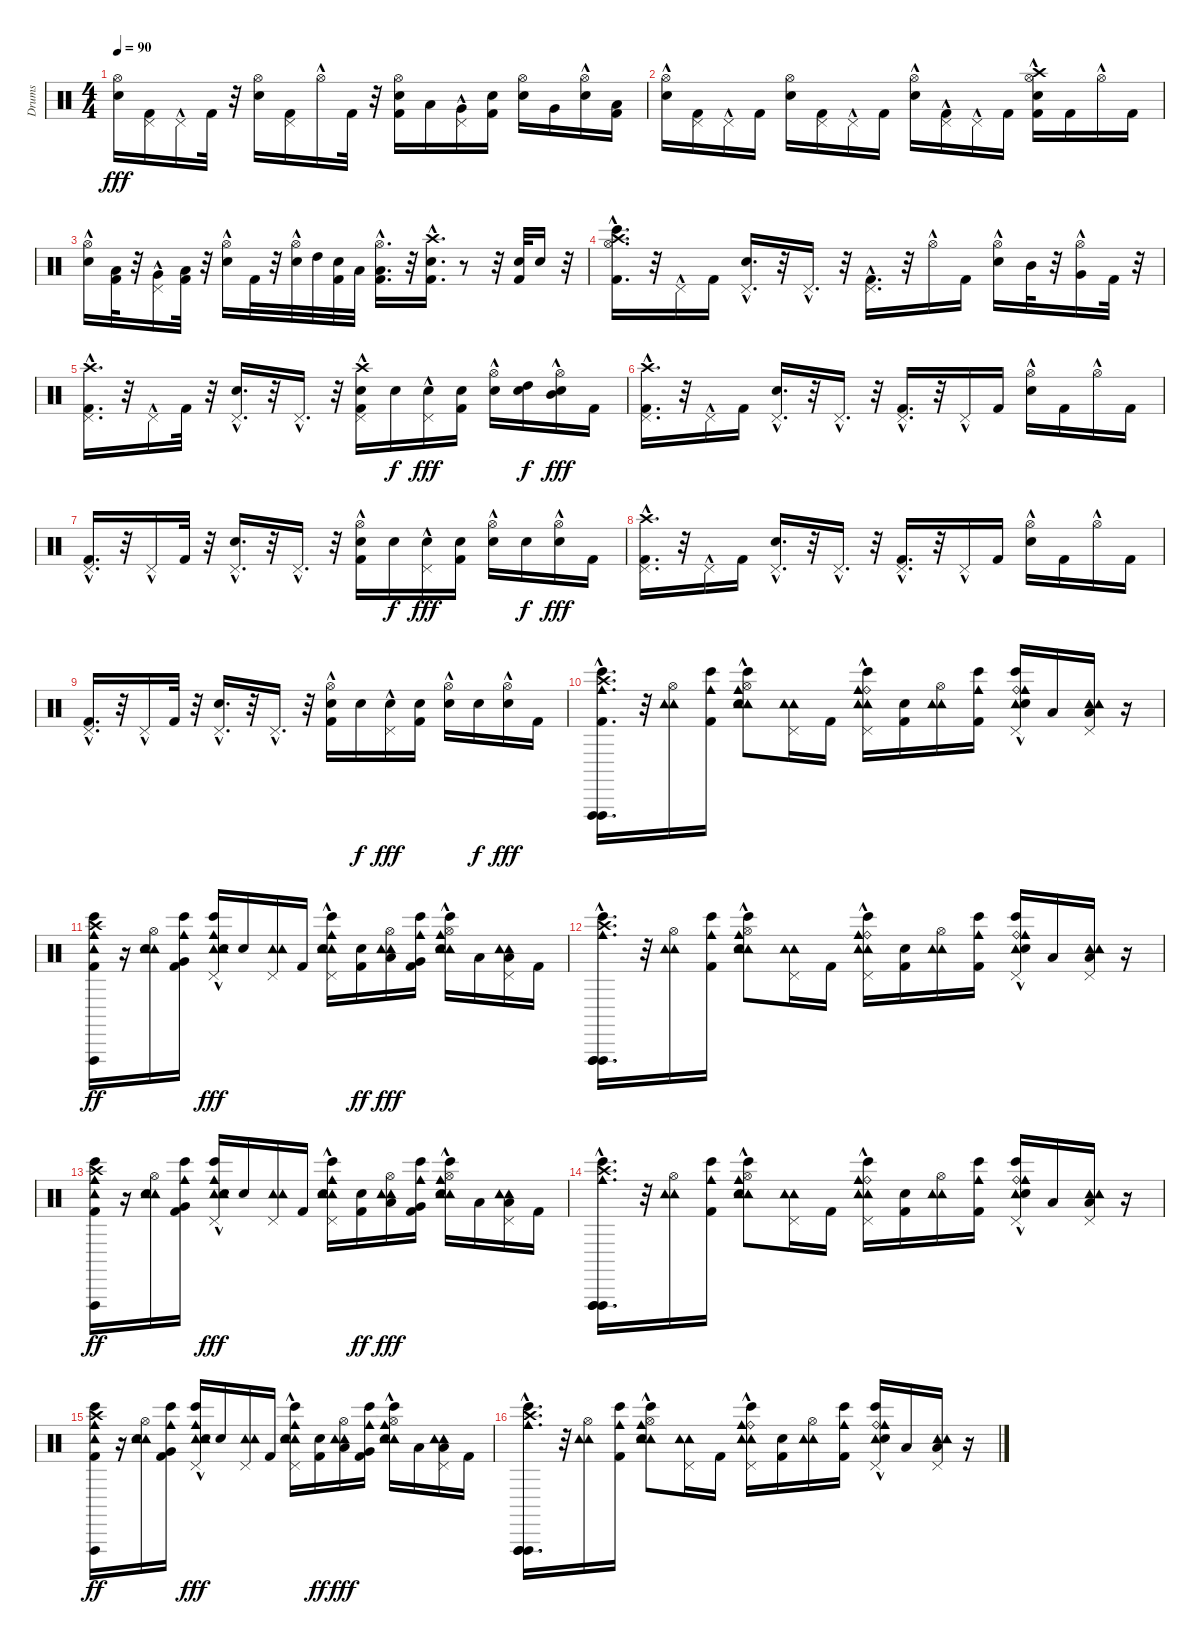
\track ("Drums" "Drums") {instrument percussion}
\staff {score}
\articulation defaults
\ts (4 4)
\tempo 90
\clef neutral
\ks c
("Hi-Hat (open)" "Electric Snare (hit)").16{dy fff} ("Pedal Hi-Hat (hit)" "Kick (hit) 2").16 "Pedal Hi-Hat (hit)"{hac}.16 "Kick (hit) 2".32 r.32 ("Hi-Hat (open)" "Electric Snare (hit)").16 ("Pedal Hi-Hat (hit)" "Kick (hit) 2").16 "Hi-Hat (open)"{hac}.16 "Kick (hit) 2".32 r.32 ("Hi-Hat (open)" "Kick (hit) 2" "Electric Snare (hit)").16 "Low Tom (hit)".16 ("Pedal Hi-Hat (hit)"{hac} "Very Low Tom (hit)").16 ("Electric Snare (hit)" "Kick (hit) 2").16 ("Hi-Hat (open)" "Electric Snare (hit)").16 "Very Low Tom (hit)".16 ("Hi-Hat (open)"{hac} "Electric Snare (hit)").16 ("Low Floor Tom (hit)" "Kick (hit) 2").16 |
("Hi-Hat (open)" "Electric Snare (hit)"{hac}).16 ("Pedal Hi-Hat (hit)" "Kick (hit) 2").16 "Pedal Hi-Hat (hit)"{hac}.16 "Kick (hit) 2".16 ("Electric Snare (hit)" "Hi-Hat (open)").16 ("Pedal Hi-Hat (hit)" "Kick (hit) 2").16 "Pedal Hi-Hat (hit)"{hac}.16 "Kick (hit) 2".16 ("Electric Snare (hit)"{hac} "Hi-Hat (open)").16 ("Pedal Hi-Hat (hit)" "Kick (hit) 2"{hac}).16 "Pedal Hi-Hat (hit)"{hac}.16 "Kick (hit) 2".16 ("Kick (hit) 2" "Crash high (hit)" "Hi-Hat (open)"{hac} "Electric Snare (hit)").16 "Kick (hit) 2".16 "Hi-Hat (open)"{hac}.16 "Kick (hit) 2".16 |
("Hi-Hat (open)"{hac} "Electric Snare (hit)").16 ("Kick (hit) 2" "Low Tom (hit)").32 r.32 ("Very Low Tom (hit)" "Pedal Hi-Hat (hit)"{hac}).16 ("Kick (hit) 2" "Low Floor Tom (hit)").32 r.32 ("Hi-Hat (open)"{hac} "Electric Snare (hit)").16 "Kick (hit) 2".32 r.32 ("Electric Snare (hit)" "Hi-Hat (open)"{hac}).32 "High Tom (hit)".32 ("Electric Snare (hit)" "Kick (hit) 2").32 "Low Tom (hit)".32 ("Hi-Hat (open)"{hac} "Low Floor Tom (hit)" "Kick (hit) 2").16{d} r.32 ("Crash high (hit)"{hac} "Kick (hit) 2"{hac} "Electric Snare (hit)"{hac}).16{d} r.8 r.32 ("Kick (hit) 2" "Electric Snare (hit)").32 "Electric Snare (hit)".16 r.32 |
("Bongo High (hit)" "Crash high (hit)" "Kick (hit) 2"{hac} "Hi-Hat (open)"{hac}).16{d} r.32 "Pedal Hi-Hat (hit)"{hac}.16 "Kick (hit) 2".16 ("Electric Snare (hit)"{hac} "Pedal Hi-Hat (hit)"{hac}).16{d} r.32 "Pedal Hi-Hat (hit)"{hac}.16{d} r.32 ("Kick (hit) 2"{hac} "Pedal Hi-Hat (hit)"{hac}).16{d} r.32 "Hi-Hat (open)"{hac}.16 "Kick (hit) 2".16 ("Electric Snare (hit)" "Hi-Hat (open)"{hac}).16 "Mid Tom (hit)".32 r.32 ("Hi-Hat (open)"{hac} "Very Low Tom (hit)").16 "Kick (hit) 2".32 r.32 |
("Crash high (hit)" "Kick (hit) 2" "Pedal Hi-Hat (hit)"{hac}).16{d} r.32 "Pedal Hi-Hat (hit)"{hac}.16 "Kick (hit) 2".32 r.32 ("Electric Snare (hit)" "Pedal Hi-Hat (hit)"{hac}).16{d} r.32 "Pedal Hi-Hat (hit)"{hac}.16{d} r.32 ("Electric Snare (hit)" "Crash high (hit)" "Kick (hit) 2" "Pedal Hi-Hat (hit)"{hac}).16 "Electric Snare (hit)".16{dy f} ("Electric Snare (hit)" "Pedal Hi-Hat (hit)"{hac}).16{dy fff} ("Electric Snare (hit)" "Kick (hit) 2").16 ("Electric Snare (hit)" "Hi-Hat (open)"{hac}).16 ("High Tom (hit)" "Electric Snare (hit)").16{dy f} ("Mid Tom (hit)" "Electric Snare (hit)" "Hi-Hat (open)"{hac}).16{dy fff} "Kick (hit) 2".16 |
("Crash high (hit)" "Kick (hit) 2" "Pedal Hi-Hat (hit)"{hac}).16{d} r.32 "Pedal Hi-Hat (hit)"{hac}.16 "Kick (hit) 2".16 ("Electric Snare (hit)" "Pedal Hi-Hat (hit)"{hac}).16{d} r.32 "Pedal Hi-Hat (hit)"{hac}.16{d} r.32 ("Pedal Hi-Hat (hit)"{hac} "Kick (hit) 2"{hac}).16{d} r.32 "Pedal Hi-Hat (hit)"{hac}.16 "Kick (hit) 2".16 ("Hi-Hat (open)"{hac} "Electric Snare (hit)").16 "Kick (hit) 2".16 "Hi-Hat (open)"{hac}.16 "Kick (hit) 2".16 |
("Pedal Hi-Hat (hit)"{hac} "Kick (hit) 2").16{d} r.32 "Pedal Hi-Hat (hit)"{hac}.16 "Kick (hit) 2".32 r.32 ("Pedal Hi-Hat (hit)"{hac} "Electric Snare (hit)").16{d} r.32 "Pedal Hi-Hat (hit)"{hac}.16{d} r.32 ("Hi-Hat (open)"{hac} "Electric Snare (hit)" "Kick (hit) 2").16 "Electric Snare (hit)".16{dy f} ("Pedal Hi-Hat (hit)"{hac} "Electric Snare (hit)").16{dy fff} ("Electric Snare (hit)" "Kick (hit) 2").16 ("Hi-Hat (open)"{hac} "Electric Snare (hit)").16 "Electric Snare (hit)".16{dy f} ("Hi-Hat (open)"{hac} "Electric Snare (hit)").16{dy fff} "Kick (hit) 2".16 |
("Crash high (hit)" "Kick (hit) 2" "Pedal Hi-Hat (hit)"{hac}).16{d} r.32 "Pedal Hi-Hat (hit)"{hac}.16 "Kick (hit) 2".16 ("Electric Snare (hit)" "Pedal Hi-Hat (hit)"{hac}).16{d} r.32 "Pedal Hi-Hat (hit)"{hac}.16{d} r.32 ("Pedal Hi-Hat (hit)"{hac} "Kick (hit) 2"{hac}).16{d} r.32 "Pedal Hi-Hat (hit)"{hac}.16 "Kick (hit) 2".16 ("Hi-Hat (open)"{hac} "Electric Snare (hit)").16 "Kick (hit) 2".16 "Hi-Hat (open)"{hac}.16 "Kick (hit) 2".16 |
("Pedal Hi-Hat (hit)"{hac} "Kick (hit) 2").16{d} r.32 "Pedal Hi-Hat (hit)"{hac}.16 "Kick (hit) 2".32 r.32 ("Pedal Hi-Hat (hit)"{hac} "Electric Snare (hit)").16{d} r.32 "Pedal Hi-Hat (hit)"{hac}.16{d} r.32 ("Hi-Hat (open)"{hac} "Electric Snare (hit)" "Kick (hit) 2").16 "Electric Snare (hit)".16{dy f} ("Pedal Hi-Hat (hit)"{hac} "Electric Snare (hit)").16{dy fff} ("Electric Snare (hit)" "Kick (hit) 2").16 ("Hi-Hat (open)"{hac} "Electric Snare (hit)").16 "Electric Snare (hit)".16{dy f} ("Hi-Hat (open)"{hac} "Electric Snare (hit)").16{dy fff} "Kick (hit) 2".16 |
("Vibraslap (hit)"{hac} "Vibraslap (hit)"{hac} "Cowbell medium (hit)" "Bongo High (hit)"{hac} "Crash high (hit)"{hac} "Kick (hit) 2"{hac}).16{d volume 13 balance 9} r.32 ("Tambourine (hit)" "Hi-Hat (open)" "Tambourine (hit)").16 ("Kick (hit) 2" "Bongo High (hit)" "Cowbell medium (hit)").16 ("Tambourine (hit)"{hac} "Hi-Hat (open)" "Cowbell medium (hit)" "Electric Snare (hit)" "Bongo High (hit)"{hac} "Tambourine (hit)"{hac}).8 ("Tambourine (hit)" "Pedal Hi-Hat (hit)" "Tambourine (hit)").16 "Kick (hit) 2".16 ("Tambourine (hit)"{hac} "Pedal Hi-Hat (hit)" "Ride (bell)" "Cowbell medium (hit)" "Bongo High (hit)" "Tambourine (hit)"{hac}).16 ("Kick (hit) 2" "Electric Snare (hit)").16 ("Tambourine (hit)" "Tambourine (hit)" "Hi-Hat (open)").16 ("Cowbell medium (hit)" "Kick (hit) 2" "Bongo High (hit)").16 ("Tambourine (hit)"{hac} "Pedal Hi-Hat (hit)" "Ride (bell)" "Cowbell medium (hit)" "Electric Snare (hit)" "Bongo High (hit)").16 "Low Tom (hit)".16 ("Tambourine (hit)" "Pedal Hi-Hat (hit)" "Tambourine (hit)" "Low Floor Tom (hit)").16 r.16 |
("Tambourine (hit)" "Vibraslap (hit)" "Cowbell medium (hit)" "Bongo High (hit)" "Kick (hit) 2" "Crash high (hit)").16{dy ff} r.16 ("Tambourine (hit)" "Hi-Hat (open)" "Tambourine (hit)" "Electric Snare (hit)").16 ("Kick (hit) 2" "Bongo High (hit)" "Cowbell medium (hit)" "Very Low Tom (hit)").16 ("Tambourine (hit)"{hac} "Pedal Hi-Hat (hit)" "Cowbell medium (hit)" "Electric Snare (hit)" "Bongo High (hit)"{hac} "Tambourine (hit)"{hac}).16{dy fff} "Electric Snare (hit)".16 ("Tambourine (hit)" "Pedal Hi-Hat (hit)" "Tambourine (hit)").16 "Kick (hit) 2".16 ("Tambourine (hit)"{hac} "Pedal Hi-Hat (hit)" "Cowbell medium (hit)" "Bongo High (hit)" "Tambourine (hit)"{hac} "Electric Snare (hit)").16 ("Kick (hit) 2" "Electric Snare (hit)").16{dy ff} ("Tambourine (hit)" "Low Tom (hit)" "Tambourine (hit)" "Hi-Hat (open)").16{dy fff} ("Cowbell medium (hit)" "Kick (hit) 2" "Bongo High (hit)" "Very Low Tom (hit)").16 ("Tambourine (hit)"{hac} "Hi-Hat (open)" "Cowbell medium (hit)" "Electric Snare (hit)" "Bongo High (hit)" "Tambourine (hit)"{hac}).16 "Low Tom (hit)".16 ("Tambourine (hit)" "Pedal Hi-Hat (hit)" "Tambourine (hit)" "Low Floor Tom (hit)").16 "Kick (hit) 2".16 |
("Vibraslap (hit)"{hac} "Vibraslap (hit)"{hac} "Vibraslap (hit)"{hac} "Cowbell medium (hit)" "Bongo High (hit)"{hac} "Crash high (hit)"{hac}).16{d} r.32 ("Tambourine (hit)" "Hi-Hat (open)" "Tambourine (hit)").16 ("Kick (hit) 2" "Bongo High (hit)" "Cowbell medium (hit)").16 ("Tambourine (hit)"{hac} "Hi-Hat (open)" "Cowbell medium (hit)" "Electric Snare (hit)" "Bongo High (hit)"{hac} "Tambourine (hit)"{hac}).8 ("Tambourine (hit)" "Pedal Hi-Hat (hit)" "Tambourine (hit)").16 "Kick (hit) 2".16 ("Tambourine (hit)"{hac} "Pedal Hi-Hat (hit)" "Ride (bell)" "Cowbell medium (hit)" "Bongo High (hit)" "Tambourine (hit)"{hac}).16 ("Kick (hit) 2" "Electric Snare (hit)").16 ("Tambourine (hit)" "Tambourine (hit)" "Hi-Hat (open)").16 ("Cowbell medium (hit)" "Kick (hit) 2" "Bongo High (hit)").16 ("Tambourine (hit)"{hac} "Pedal Hi-Hat (hit)" "Ride (bell)" "Cowbell medium (hit)" "Electric Snare (hit)" "Bongo High (hit)").16 "Low Tom (hit)".16 ("Tambourine (hit)" "Pedal Hi-Hat (hit)" "Tambourine (hit)" "Low Floor Tom (hit)").16 r.16 |
("Tambourine (hit)" "Vibraslap (hit)" "Cowbell medium (hit)" "Bongo High (hit)" "Kick (hit) 2" "Crash high (hit)").16{dy ff} r.16 ("Tambourine (hit)" "Hi-Hat (open)" "Tambourine (hit)" "Electric Snare (hit)").16 ("Kick (hit) 2" "Bongo High (hit)" "Cowbell medium (hit)" "Very Low Tom (hit)").16 ("Tambourine (hit)"{hac} "Pedal Hi-Hat (hit)" "Cowbell medium (hit)" "Electric Snare (hit)" "Bongo High (hit)"{hac} "Tambourine (hit)"{hac}).16{dy fff} "Electric Snare (hit)".16 ("Tambourine (hit)" "Pedal Hi-Hat (hit)" "Tambourine (hit)").16 "Kick (hit) 2".16 ("Tambourine (hit)"{hac} "Pedal Hi-Hat (hit)" "Cowbell medium (hit)" "Bongo High (hit)" "Tambourine (hit)"{hac} "Electric Snare (hit)").16 ("Kick (hit) 2" "Electric Snare (hit)").16{dy ff} ("Tambourine (hit)" "Low Tom (hit)" "Tambourine (hit)" "Hi-Hat (open)").16{dy fff} ("Cowbell medium (hit)" "Kick (hit) 2" "Bongo High (hit)" "Very Low Tom (hit)").16 ("Tambourine (hit)"{hac} "Hi-Hat (open)" "Cowbell medium (hit)" "Electric Snare (hit)" "Bongo High (hit)" "Tambourine (hit)"{hac}).16 "Low Tom (hit)".16 ("Tambourine (hit)" "Pedal Hi-Hat (hit)" "Tambourine (hit)" "Low Floor Tom (hit)").16 "Kick (hit) 2".16 |
("Vibraslap (hit)"{hac} "Vibraslap (hit)"{hac} "Vibraslap (hit)"{hac} "Cowbell medium (hit)" "Bongo High (hit)"{hac} "Crash high (hit)"{hac}).16{d} r.32 ("Tambourine (hit)" "Hi-Hat (open)" "Tambourine (hit)").16 ("Kick (hit) 2" "Bongo High (hit)" "Cowbell medium (hit)").16 ("Tambourine (hit)"{hac} "Hi-Hat (open)" "Cowbell medium (hit)" "Electric Snare (hit)" "Bongo High (hit)"{hac} "Tambourine (hit)"{hac}).8 ("Tambourine (hit)" "Pedal Hi-Hat (hit)" "Tambourine (hit)").16 "Kick (hit) 2".16 ("Tambourine (hit)"{hac} "Pedal Hi-Hat (hit)" "Ride (bell)" "Cowbell medium (hit)" "Bongo High (hit)" "Tambourine (hit)"{hac}).16 ("Kick (hit) 2" "Electric Snare (hit)").16 ("Tambourine (hit)" "Tambourine (hit)" "Hi-Hat (open)").16 ("Cowbell medium (hit)" "Kick (hit) 2" "Bongo High (hit)").16 ("Tambourine (hit)"{hac} "Pedal Hi-Hat (hit)" "Ride (bell)" "Cowbell medium (hit)" "Electric Snare (hit)" "Bongo High (hit)").16 "Low Tom (hit)".16 ("Tambourine (hit)" "Pedal Hi-Hat (hit)" "Tambourine (hit)" "Low Floor Tom (hit)").16 r.16 |
("Tambourine (hit)" "Vibraslap (hit)" "Cowbell medium (hit)" "Bongo High (hit)" "Kick (hit) 2" "Crash high (hit)").16{dy ff} r.16 ("Tambourine (hit)" "Hi-Hat (open)" "Tambourine (hit)" "Electric Snare (hit)").16 ("Kick (hit) 2" "Bongo High (hit)" "Cowbell medium (hit)" "Very Low Tom (hit)").16 ("Tambourine (hit)"{hac} "Pedal Hi-Hat (hit)" "Cowbell medium (hit)" "Electric Snare (hit)" "Bongo High (hit)"{hac} "Tambourine (hit)"{hac}).16{dy fff} "Electric Snare (hit)".16 ("Tambourine (hit)" "Pedal Hi-Hat (hit)" "Tambourine (hit)").16 "Kick (hit) 2".16 ("Tambourine (hit)"{hac} "Pedal Hi-Hat (hit)" "Cowbell medium (hit)" "Bongo High (hit)" "Tambourine (hit)"{hac} "Electric Snare (hit)").16 ("Kick (hit) 2" "Electric Snare (hit)").16{dy ff} ("Tambourine (hit)" "Low Tom (hit)" "Tambourine (hit)" "Hi-Hat (open)").16{dy fff} ("Cowbell medium (hit)" "Kick (hit) 2" "Bongo High (hit)" "Very Low Tom (hit)").16 ("Tambourine (hit)"{hac} "Hi-Hat (open)" "Cowbell medium (hit)" "Electric Snare (hit)" "Bongo High (hit)" "Tambourine (hit)"{hac}).16 "Low Tom (hit)".16 ("Tambourine (hit)" "Pedal Hi-Hat (hit)" "Tambourine (hit)" "Low Floor Tom (hit)").16 "Kick (hit) 2".16 |
("Vibraslap (hit)"{hac} "Vibraslap (hit)"{hac} "Vibraslap (hit)"{hac} "Cowbell medium (hit)" "Bongo High (hit)"{hac} "Crash high (hit)"{hac}).16{d} r.32 ("Tambourine (hit)" "Hi-Hat (open)" "Tambourine (hit)").16 ("Kick (hit) 2" "Bongo High (hit)" "Cowbell medium (hit)").16 ("Tambourine (hit)"{hac} "Hi-Hat (open)" "Cowbell medium (hit)" "Electric Snare (hit)" "Bongo High (hit)"{hac} "Tambourine (hit)"{hac}).8 ("Tambourine (hit)" "Pedal Hi-Hat (hit)" "Tambourine (hit)").16 "Kick (hit) 2".16 ("Tambourine (hit)"{hac} "Pedal Hi-Hat (hit)" "Ride (bell)" "Cowbell medium (hit)" "Bongo High (hit)" "Tambourine (hit)"{hac}).16 ("Kick (hit) 2" "Electric Snare (hit)").16 ("Tambourine (hit)" "Tambourine (hit)" "Hi-Hat (open)").16 ("Cowbell medium (hit)" "Kick (hit) 2" "Bongo High (hit)").16 ("Tambourine (hit)"{hac} "Pedal Hi-Hat (hit)" "Ride (bell)" "Cowbell medium (hit)" "Electric Snare (hit)" "Bongo High (hit)").16 "Low Tom (hit)".16 ("Tambourine (hit)" "Pedal Hi-Hat (hit)" "Tambourine (hit)" "Low Floor Tom (hit)").16 r.16
